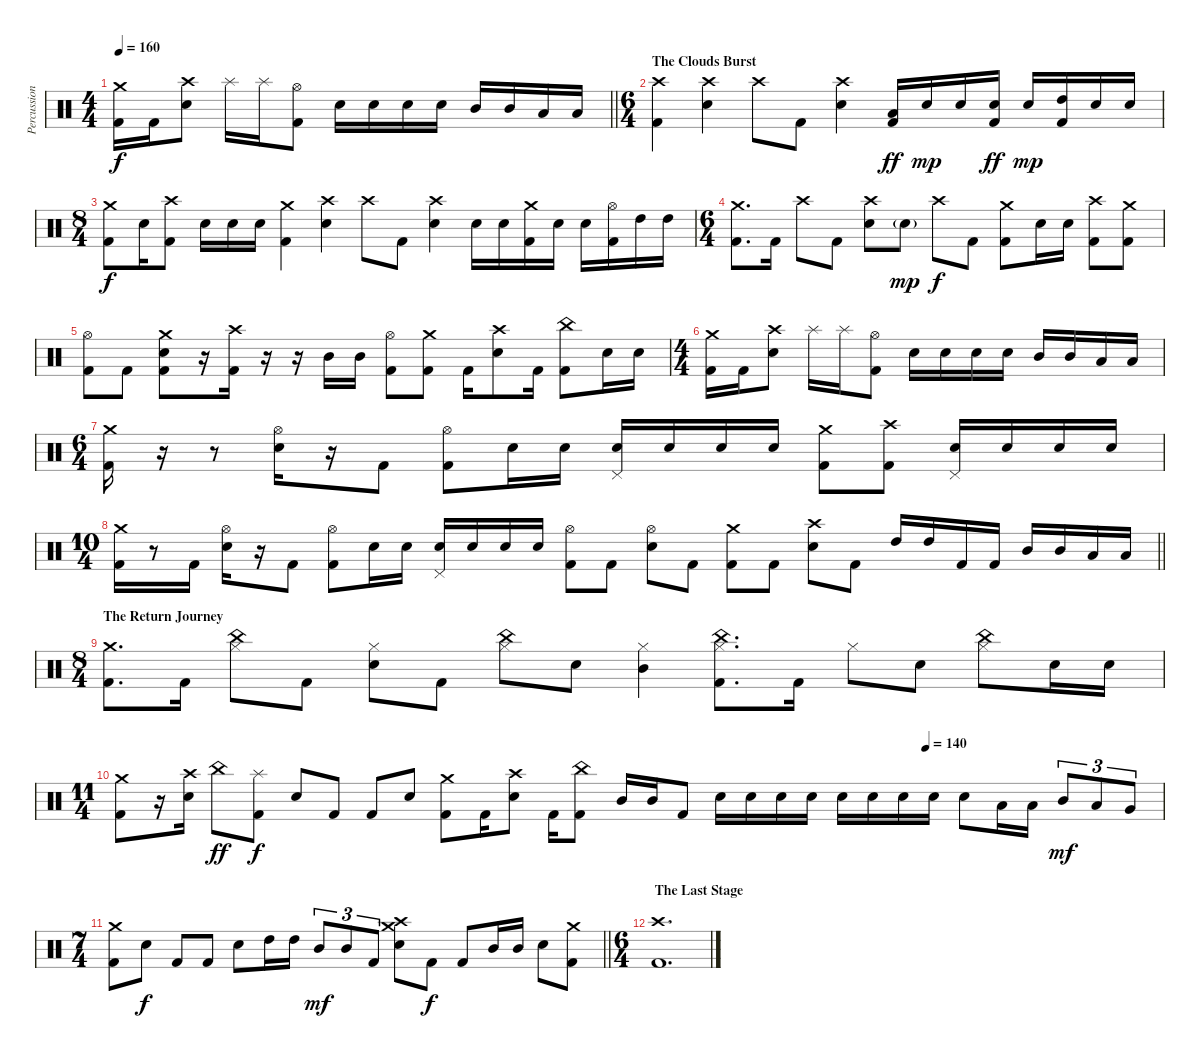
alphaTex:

\track ("Percussion" "Percussion") {instrument percussion}
\staff {score}
\articulation defaults
\ts (4 4)
\tempo 160
\clef neutral
\barLineRight lightlight
\ks c
("Crash medium (hit)" "Kick (hit) 2").16{dy f} "Kick (hit) 2".16 ("Crash high (hit)" "Electric Snare (hit)").8 "Splash (hit)".16 "Splash (hit)".16 ("Hi-Hat (open)" "Kick (hit) 2").8 "Electric Snare (hit)".16 "Electric Snare (hit)".16 "Electric Snare (hit)".16 "Electric Snare (hit)".16 "Mid Tom (hit)".16 "Mid Tom (hit)".16 "Low Tom (hit)".16 "Low Tom (hit)".16 |
\ts (6 4)
\section ("" "The Clouds Burst")
("Kick (hit) 2" "Crash high (hit)").4 ("Electric Snare (hit)" "Crash high (hit)").4 "Crash high (hit)".8 "Kick (hit) 2".8 ("Electric Snare (hit)" "Crash high (hit)").4 ("Low Tom (hit)" "Kick (hit) 2").16{dy ff} "Electric Snare (hit)".16{dy mp} "Electric Snare (hit)".16 ("Electric Snare (hit)" "Kick (hit) 2").16{dy ff} "Electric Snare (hit)".16{dy mp} ("High Tom (hit)" "Kick (hit) 2").16 "Electric Snare (hit)".16 "Electric Snare (hit)".16 |
\ts (8 4)
("Kick (hit) 2" "Crash medium (hit)").8{dy f} "Electric Snare (hit)".16 ("Kick (hit) 2" "Crash high (hit)").8 "Electric Snare (hit)".16 "Electric Snare (hit)".16 "Electric Snare (hit)".16 ("Crash medium (hit)" "Kick (hit) 2").4 ("Electric Snare (hit)" "Crash high (hit)").4 "Crash high (hit)".8 "Kick (hit) 2".8 ("Electric Snare (hit)" "Crash high (hit)").4 "Electric Snare (hit)".16 "Electric Snare (hit)".16 ("Crash medium (hit)" "Kick (hit) 2").16 "Electric Snare (hit)".16 "Electric Snare (hit)".16 ("Hi-Hat (open)" "Kick (hit) 2").16 "High Tom (hit)".16 "High Tom (hit)".16 |
\ts (6 4)
("Kick (hit) 2" "Crash medium (hit)").8{d} "Kick (hit) 2".16 "Crash high (hit)".8 "Kick (hit) 2".8 ("Electric Snare (hit)" "Crash high (hit)").8 "Electric Snare (hit)"{g}.8{dy mp} "Crash high (hit)".8{dy f} "Kick (hit) 2".8 ("Crash medium (hit)" "Kick (hit) 2").8 "Electric Snare (hit)".16 "Electric Snare (hit)".16 ("Kick (hit) 2" "Crash high (hit)").8 ("Kick (hit) 2" "Crash medium (hit)").8 |
("Hi-Hat (open)" "Kick (hit) 2").8 "Kick (hit) 2".8 ("Crash medium (hit)" "Electric Snare (hit)" "Kick (hit) 2").8 r.16 ("Crash high (hit)" "Kick (hit) 2").16 r.16 r.16 "Mid Tom (hit)".16 "Mid Tom (hit)".16 ("Hi-Hat (open)" "Kick (hit) 2").8 ("Crash medium (hit)" "Kick (hit) 2").8 "Kick (hit) 2".16 ("Crash high (hit)" "Electric Snare (hit)").8 "Kick (hit) 2".16 ("China (hit)" "Kick (hit) 2").8 "Electric Snare (hit)".16 "Electric Snare (hit)".16 |
\ts (4 4)
("Crash medium (hit)" "Kick (hit) 2").16 "Kick (hit) 2".16 ("Crash high (hit)" "Electric Snare (hit)").8 "Splash (hit)".16 "Splash (hit)".16 ("Hi-Hat (open)" "Kick (hit) 2").8 "Electric Snare (hit)".16 "Electric Snare (hit)".16 "Electric Snare (hit)".16 "Electric Snare (hit)".16 "Mid Tom (hit)".16 "Mid Tom (hit)".16 "Low Tom (hit)".16 "Low Tom (hit)".16 |
\ts (6 4)
("Crash medium (hit)" "Kick (hit) 2").16 r.16 r.8 ("Hi-Hat (open)" "Electric Snare (hit)").16 r.16 "Kick (hit) 2".8 ("Hi-Hat (open)" "Kick (hit) 2").8 "Electric Snare (hit)".16 "Electric Snare (hit)".16 ("Electric Snare (hit)" "Pedal Hi-Hat (hit)").16 "Electric Snare (hit)".16 "Electric Snare (hit)".16 "Electric Snare (hit)".16 ("Crash medium (hit)" "Kick (hit) 2").8 ("Crash high (hit)" "Kick (hit) 2").8 ("Electric Snare (hit)" "Pedal Hi-Hat (hit)").16 "Electric Snare (hit)".16 "Electric Snare (hit)".16 "Electric Snare (hit)".16 |
\ts (10 4)
\barLineRight lightlight
("Crash medium (hit)" "Kick (hit) 2").16 r.8 "Kick (hit) 2".16 ("Hi-Hat (open)" "Electric Snare (hit)").16 r.16 "Kick (hit) 2".8 ("Hi-Hat (open)" "Kick (hit) 2").8 "Electric Snare (hit)".16 "Electric Snare (hit)".16 ("Electric Snare (hit)" "Pedal Hi-Hat (hit)").16 "Electric Snare (hit)".16 "Electric Snare (hit)".16 "Electric Snare (hit)".16 ("Hi-Hat (open)" "Kick (hit) 2").8 "Kick (hit) 2".8 ("Hi-Hat (open)" "Electric Snare (hit)").8 "Kick (hit) 2".8 ("Crash medium (hit)" "Kick (hit) 2").8 "Kick (hit) 2".8 ("Crash high (hit)" "Electric Snare (hit)").8 "Kick (hit) 2".8 "High Tom (hit)".16 "High Tom (hit)".16 "Kick (hit) 2".16 "Kick (hit) 2".16 "Mid Tom (hit)".16 "Mid Tom (hit)".16 "Low Tom (hit)".16 "Low Tom (hit)".16 |
\ts (8 4)
\section ("" "The Return Journey")
("Kick (hit) 2" "Crash medium (hit)").8{d} "Kick (hit) 2".16 ("Hi-Hat (closed)" "China (hit)").8 "Kick (hit) 2".8 ("Hi-Hat (closed)" "Electric Snare (hit)").8 "Kick (hit) 2".8 ("Hi-Hat (closed)" "China (hit)").8 "Electric Snare (hit)".8 ("Hi-Hat (closed)" "Mid Tom (hit)").4 ("Hi-Hat (closed)" "Kick (hit) 2" "China (hit)").8{d} "Kick (hit) 2".16 "Hi-Hat (closed)".8 "Electric Snare (hit)".8 ("Hi-Hat (closed)" "China (hit)").8 "Electric Snare (hit)".16 "Electric Snare (hit)".16 |
\ts (11 4)
\tempo (140 0.7727272727272727)
("Crash medium (hit)" "Kick (hit) 2").8 r.16 ("Crash high (hit)" "Electric Snare (hit)").16 "China (hit)".8{dy ff} ("Splash (hit)" "Kick (hit) 2").8{dy f} "Electric Snare (hit)".8 "Kick (hit) 2".8 "Kick (hit) 2".8 "Electric Snare (hit)".8 ("Crash medium (hit)" "Kick (hit) 2").8 "Kick (hit) 2".16 ("Crash high (hit)" "Electric Snare (hit)").8 "Kick (hit) 2".16 ("China (hit)" "Kick (hit) 2").8 "Mid Tom (hit)".16 "Mid Tom (hit)".16 "Kick (hit) 2".8 "Electric Snare (hit)".16 "Electric Snare (hit)".16 "Electric Snare (hit)".16 "Electric Snare (hit)".16 "Electric Snare (hit)".16 "Electric Snare (hit)".16 "Electric Snare (hit)".16 "Electric Snare (hit)".16 "Electric Snare (hit)".8 "Low Tom (hit)".16 "Low Tom (hit)".16 "Mid Tom (hit)".8{tu (3 2) dy mf} "Low Tom (hit)".8{tu (3 2)} "Very Low Tom (hit)".8{tu (3 2)} |
\ts (7 4)
\barLineRight lightlight
("Crash medium (hit)" "Kick (hit) 2").8 "Electric Snare (hit)".8{dy f} "Kick (hit) 2".8 "Kick (hit) 2".8 "Electric Snare (hit)".8 "High Tom (hit)".16 "High Tom (hit)".16 "Mid Tom (hit)".8{tu (3 2) dy mf} "Mid Tom (hit)".8{tu (3 2)} "Kick (hit) 2".8{tu (3 2)} ("Crash medium (hit)" "Crash high (hit)" "Electric Snare (hit)").8 "Kick (hit) 2".8{dy f} "Kick (hit) 2".8 "Mid Tom (hit)".16 "Mid Tom (hit)".16 "Electric Snare (hit)".8 ("Crash medium (hit)" "Kick (hit) 2").8 |
\ts (6 4)
\section ("" " The Last Stage")
("Crash high (hit)" "Kick (hit) 2").1{d}
